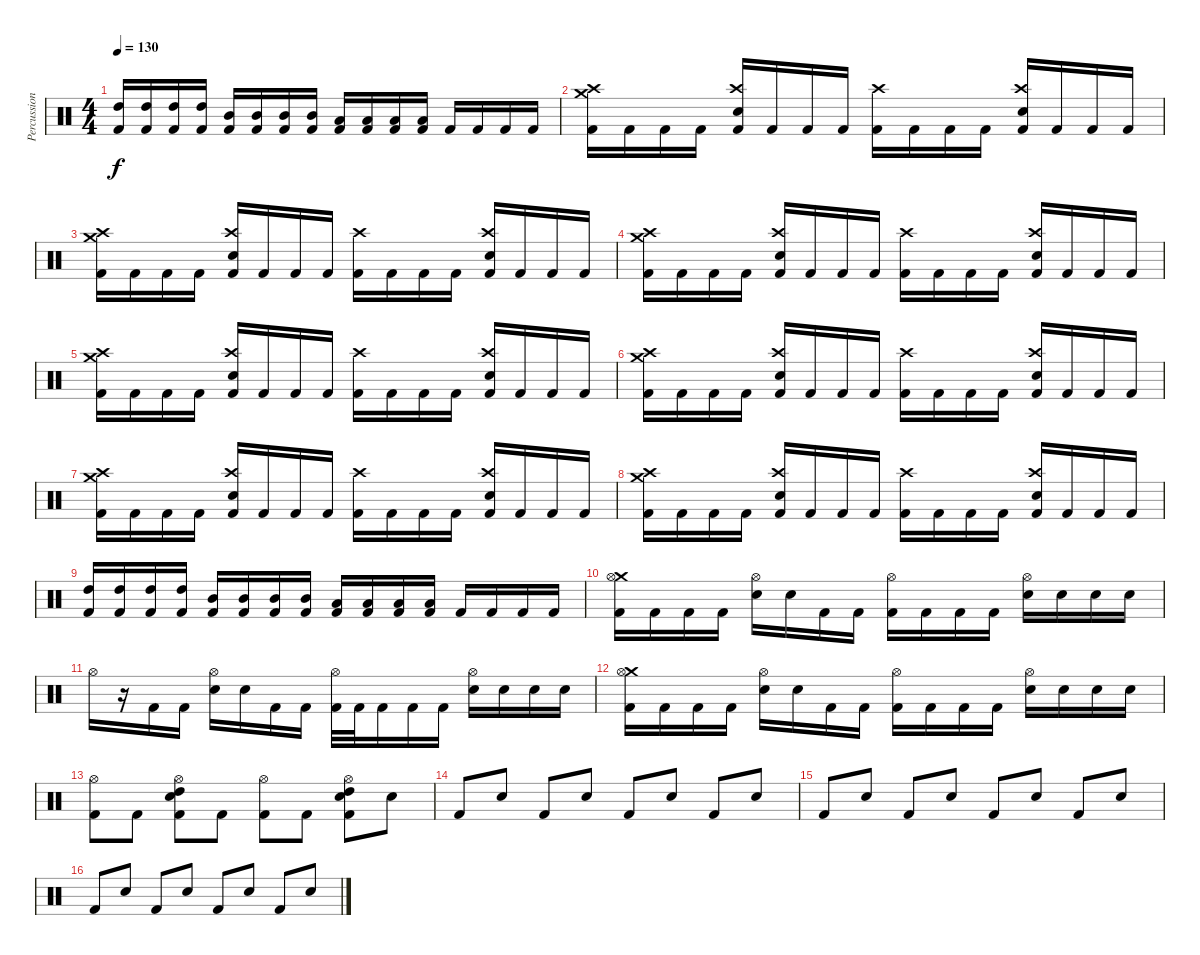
\track ("Percussion" "Percussion") {instrument percussion}
\staff {score}
\articulation defaults
\ts (4 4)
\tempo 130
\clef neutral
\ks c
("High Tom (hit)" "Kick (hit) 2").16{dy f} ("High Tom (hit)" "Kick (hit) 2").16 ("High Tom (hit)" "Kick (hit) 2").16 ("High Tom (hit)" "Kick (hit) 2").16 ("Mid Tom (hit)" "Kick (hit) 2").16 ("Mid Tom (hit)" "Kick (hit) 2").16 ("Mid Tom (hit)" "Kick (hit) 2").16 ("Mid Tom (hit)" "Kick (hit) 2").16 ("Low Tom (hit)" "Kick (hit) 2").16 ("Low Tom (hit)" "Kick (hit) 2").16 ("Low Tom (hit)" "Kick (hit) 2").16 ("Low Tom (hit)" "Kick (hit) 2").16 "Kick (hit) 2".16 "Kick (hit) 2".16 "Kick (hit) 2".16 "Kick (hit) 2".16 |
("Crash medium (hit)" "Crash high (hit)" "Kick (hit) 2").16 "Kick (hit) 2".16 "Kick (hit) 2".16 "Kick (hit) 2".16 ("Crash high (hit)" "Snare (hit) 2" "Kick (hit) 2").16 "Kick (hit) 2".16 "Kick (hit) 2".16 "Kick (hit) 2".16 ("Crash high (hit)" "Kick (hit) 2").16 "Kick (hit) 2".16 "Kick (hit) 2".16 "Kick (hit) 2".16 ("Crash high (hit)" "Snare (hit) 2" "Kick (hit) 2").16 "Kick (hit) 2".16 "Kick (hit) 2".16 "Kick (hit) 2".16 |
("Crash high (hit)" "Crash medium (hit)" "Kick (hit) 2").16 "Kick (hit) 2".16 "Kick (hit) 2".16 "Kick (hit) 2".16 ("Crash high (hit)" "Snare (hit) 2" "Kick (hit) 2").16 "Kick (hit) 2".16 "Kick (hit) 2".16 "Kick (hit) 2".16 ("Crash high (hit)" "Kick (hit) 2").16 "Kick (hit) 2".16 "Kick (hit) 2".16 "Kick (hit) 2".16 ("Crash high (hit)" "Snare (hit) 2" "Kick (hit) 2").16 "Kick (hit) 2".16 "Kick (hit) 2".16 "Kick (hit) 2".16 |
("Crash medium (hit)" "Crash high (hit)" "Kick (hit) 2").16 "Kick (hit) 2".16 "Kick (hit) 2".16 "Kick (hit) 2".16 ("Crash high (hit)" "Snare (hit) 2" "Kick (hit) 2").16 "Kick (hit) 2".16 "Kick (hit) 2".16 "Kick (hit) 2".16 ("Crash high (hit)" "Kick (hit) 2").16 "Kick (hit) 2".16 "Kick (hit) 2".16 "Kick (hit) 2".16 ("Crash high (hit)" "Snare (hit) 2" "Kick (hit) 2").16 "Kick (hit) 2".16 "Kick (hit) 2".16 "Kick (hit) 2".16 |
("Crash high (hit)" "Crash medium (hit)" "Kick (hit) 2").16 "Kick (hit) 2".16 "Kick (hit) 2".16 "Kick (hit) 2".16 ("Crash high (hit)" "Snare (hit) 2" "Kick (hit) 2").16 "Kick (hit) 2".16 "Kick (hit) 2".16 "Kick (hit) 2".16 ("Crash high (hit)" "Kick (hit) 2").16 "Kick (hit) 2".16 "Kick (hit) 2".16 "Kick (hit) 2".16 ("Crash high (hit)" "Snare (hit) 2" "Kick (hit) 2").16 "Kick (hit) 2".16 "Kick (hit) 2".16 "Kick (hit) 2".16 |
("Crash medium (hit)" "Crash high (hit)" "Kick (hit) 2").16 "Kick (hit) 2".16 "Kick (hit) 2".16 "Kick (hit) 2".16 ("Crash high (hit)" "Snare (hit) 2" "Kick (hit) 2").16 "Kick (hit) 2".16 "Kick (hit) 2".16 "Kick (hit) 2".16 ("Crash high (hit)" "Kick (hit) 2").16 "Kick (hit) 2".16 "Kick (hit) 2".16 "Kick (hit) 2".16 ("Crash high (hit)" "Snare (hit) 2" "Kick (hit) 2").16 "Kick (hit) 2".16 "Kick (hit) 2".16 "Kick (hit) 2".16 |
("Crash high (hit)" "Crash medium (hit)" "Kick (hit) 2").16 "Kick (hit) 2".16 "Kick (hit) 2".16 "Kick (hit) 2".16 ("Crash high (hit)" "Snare (hit) 2" "Kick (hit) 2").16 "Kick (hit) 2".16 "Kick (hit) 2".16 "Kick (hit) 2".16 ("Crash high (hit)" "Kick (hit) 2").16 "Kick (hit) 2".16 "Kick (hit) 2".16 "Kick (hit) 2".16 ("Crash high (hit)" "Snare (hit) 2" "Kick (hit) 2").16 "Kick (hit) 2".16 "Kick (hit) 2".16 "Kick (hit) 2".16 |
("Crash high (hit)" "Crash medium (hit)" "Kick (hit) 2").16 "Kick (hit) 2".16 "Kick (hit) 2".16 "Kick (hit) 2".16 ("Crash high (hit)" "Snare (hit) 2" "Kick (hit) 2").16 "Kick (hit) 2".16 "Kick (hit) 2".16 "Kick (hit) 2".16 ("Crash high (hit)" "Kick (hit) 2").16 "Kick (hit) 2".16 "Kick (hit) 2".16 "Kick (hit) 2".16 ("Crash high (hit)" "Snare (hit) 2" "Kick (hit) 2").16 "Kick (hit) 2".16 "Kick (hit) 2".16 "Kick (hit) 2".16 |
("High Tom (hit)" "Kick (hit) 2").16 ("High Tom (hit)" "Kick (hit) 2").16 ("High Tom (hit)" "Kick (hit) 2").16 ("High Tom (hit)" "Kick (hit) 2").16 ("Mid Tom (hit)" "Kick (hit) 2").16 ("Mid Tom (hit)" "Kick (hit) 2").16 ("Mid Tom (hit)" "Kick (hit) 2").16 ("Mid Tom (hit)" "Kick (hit) 2").16 ("Low Tom (hit)" "Kick (hit) 2").16 ("Low Tom (hit)" "Kick (hit) 2").16 ("Low Tom (hit)" "Kick (hit) 2").16 ("Low Tom (hit)" "Kick (hit) 2").16 "Kick (hit) 2".16 "Kick (hit) 2".16 "Kick (hit) 2".16 "Kick (hit) 2".16 |
("Crash medium (hit)" "Hi-Hat (open)" "Kick (hit) 2").16 "Kick (hit) 2".16 "Kick (hit) 2".16 "Kick (hit) 2".16 ("Hi-Hat (open)" "Snare (hit) 2").16 "Snare (hit)".16 "Kick (hit) 2".16 "Kick (hit) 2".16 ("Hi-Hat (open)" "Kick (hit) 2").16 "Kick (hit) 2".16 "Kick (hit) 2".16 "Kick (hit) 2".16 ("Hi-Hat (open)" "Snare (hit) 2").16 "Snare (hit)".16 "Snare (hit)".16 "Snare (hit)".16 |
"Hi-Hat (open)".16 r.16 "Kick (hit) 2".16 "Kick (hit) 2".16 ("Hi-Hat (open)" "Snare (hit) 2").16 "Snare (hit)".16 "Kick (hit) 2".16 "Kick (hit) 2".16 ("Hi-Hat (open)" "Kick (hit) 2").32 "Kick (hit) 2".32 "Kick (hit) 2".16 "Kick (hit) 2".16 "Kick (hit) 2".16 ("Hi-Hat (open)" "Snare (hit) 2").16 "Snare (hit)".16 "Snare (hit)".16 "Snare (hit)".16 |
("Crash medium (hit)" "Hi-Hat (open)" "Kick (hit) 2").16 "Kick (hit) 2".16 "Kick (hit) 2".16 "Kick (hit) 2".16 ("Hi-Hat (open)" "Snare (hit) 2").16 "Snare (hit)".16 "Kick (hit) 2".16 "Kick (hit) 2".16 ("Hi-Hat (open)" "Kick (hit) 2").16 "Kick (hit) 2".16 "Kick (hit) 2".16 "Kick (hit) 2".16 ("Hi-Hat (open)" "Snare (hit) 2").16 "Snare (hit)".16 "Snare (hit)".16 "Snare (hit)".16 |
("Kick (hit) 2" "Hi-Hat (open)").8 "Kick (hit) 2".8 ("High Tom (hit)" "Snare (hit) 2" "Kick (hit) 2" "Hi-Hat (open)").8 "Kick (hit) 2".8 ("Kick (hit) 2" "Hi-Hat (open)").8 "Kick (hit) 2".8 ("Snare (hit) 2" "High Tom (hit)" "Kick (hit) 2" "Hi-Hat (open)").8 "Snare (hit)".8 |
"Kick (hit) 2".8 "Snare (hit)".8 "Kick (hit) 2".8 "Snare (hit)".8 "Kick (hit) 2".8 "Snare (hit)".8 "Kick (hit) 2".8 "Snare (hit)".8 |
"Kick (hit) 2".8 "Snare (hit)".8 "Kick (hit) 2".8 "Snare (hit)".8 "Kick (hit) 2".8 "Snare (hit)".8 "Kick (hit) 2".8 "Snare (hit)".8 |
"Kick (hit) 2".8 "Snare (hit)".8 "Kick (hit) 2".8 "Snare (hit)".8 "Kick (hit) 2".8 "Snare (hit)".8 "Kick (hit) 2".8 "Snare (hit)".8
